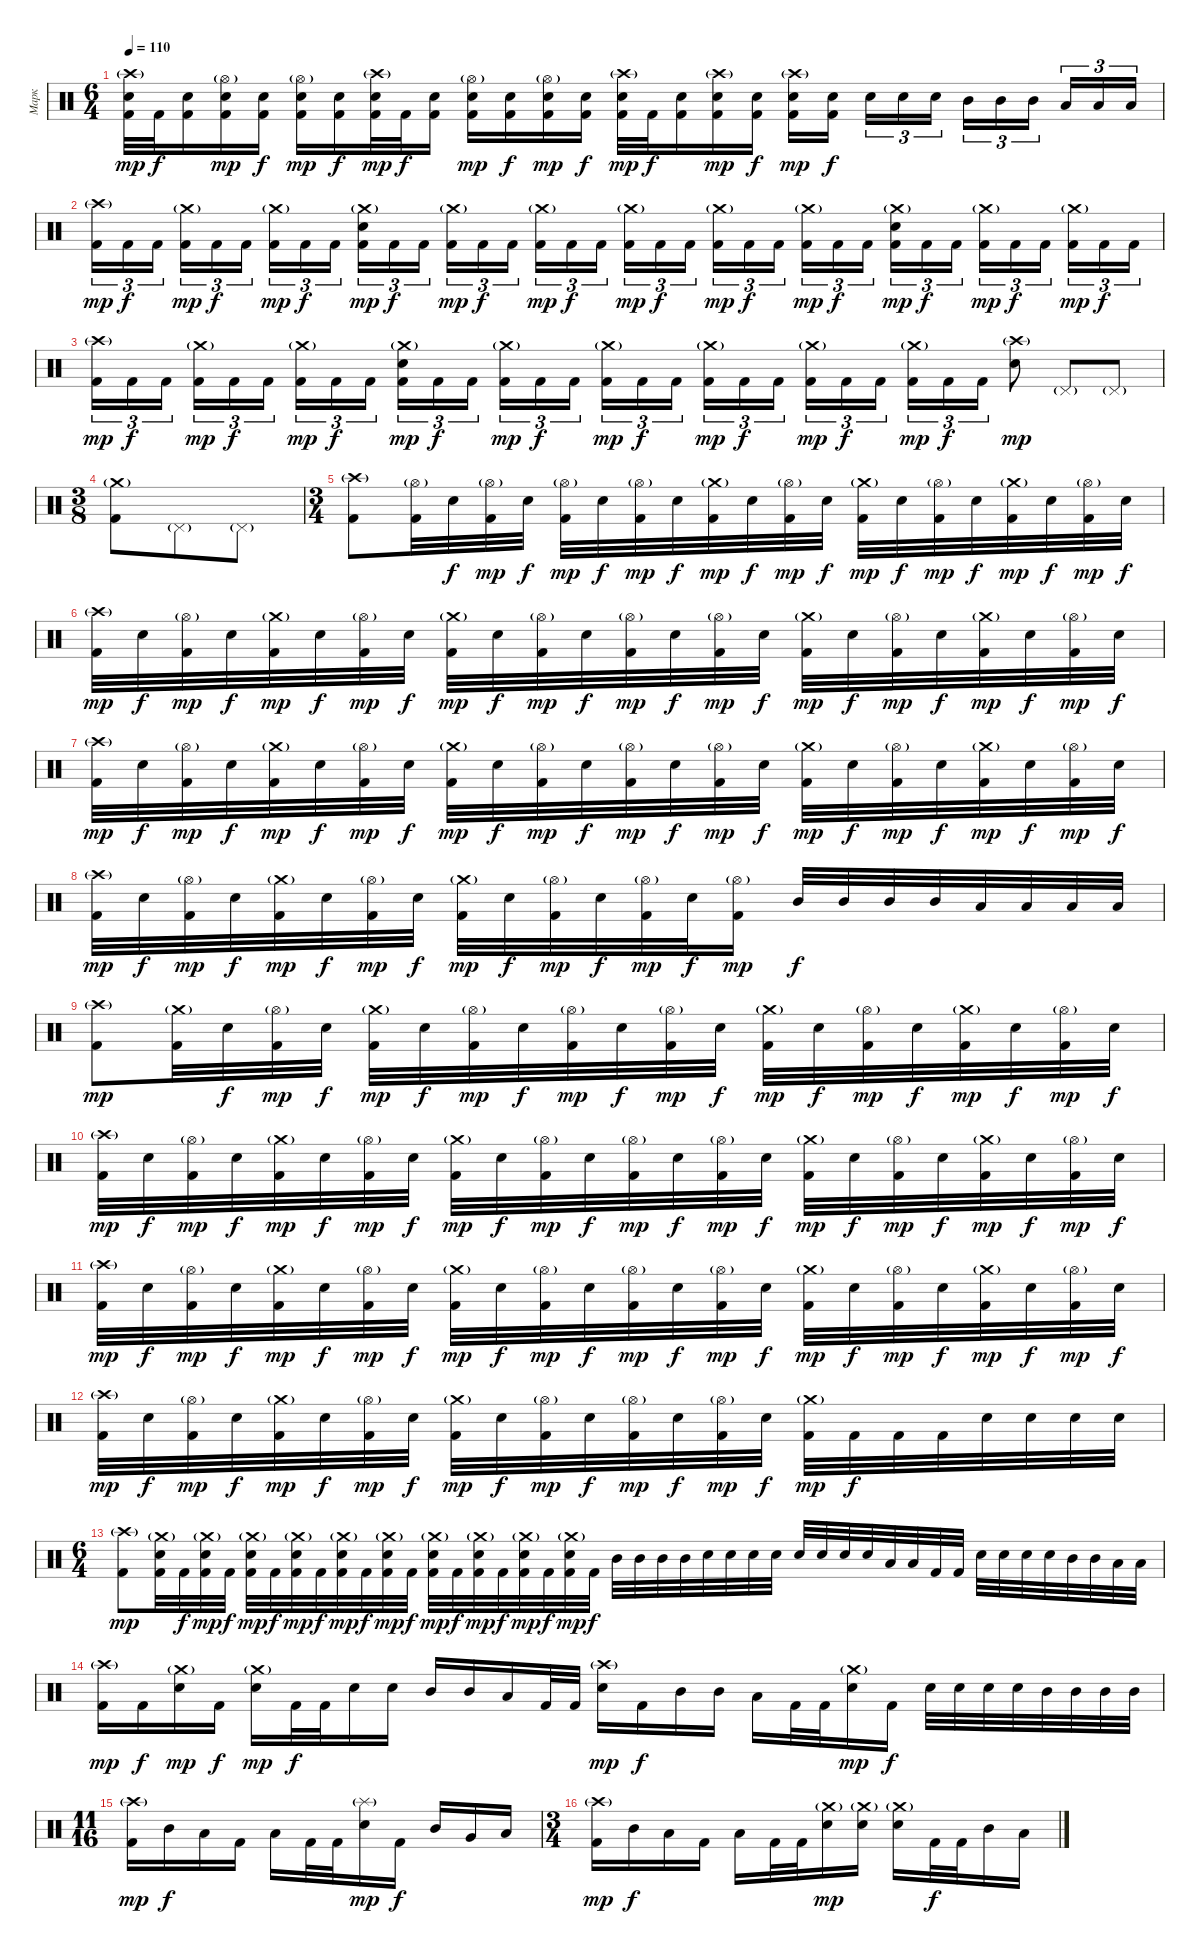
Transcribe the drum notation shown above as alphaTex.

\track ("Марк " "Марк ") {instrument percussion}
\staff {score}
\articulation defaults
\ts (6 4)
\tempo 110
\clef neutral
\ks c
("Crash high (hit)"{g} "Electric Snare (hit)" "Kick (hit) 2").32{dy mp} "Kick (hit) 2".32{dy f} ("Electric Snare (hit)" "Kick (hit) 2").16 ("Hi-Hat (open)"{g} "Electric Snare (hit)" "Kick (hit) 2").16{dy mp} ("Electric Snare (hit)" "Kick (hit) 2").16{dy f} ("Hi-Hat (open)"{g} "Electric Snare (hit)" "Kick (hit) 2").16{dy mp} ("Electric Snare (hit)" "Kick (hit) 2").16{dy f} ("Crash high (hit)"{g} "Electric Snare (hit)" "Kick (hit) 2").32{dy mp} "Kick (hit) 2".32{dy f} ("Electric Snare (hit)" "Kick (hit) 2").16 ("Hi-Hat (open)"{g} "Electric Snare (hit)" "Kick (hit) 2").16{dy mp} ("Electric Snare (hit)" "Kick (hit) 2").16{dy f} ("Hi-Hat (open)"{g} "Electric Snare (hit)" "Kick (hit) 2").16{dy mp} ("Electric Snare (hit)" "Kick (hit) 2").16{dy f} ("Crash high (hit)"{g} "Electric Snare (hit)" "Kick (hit) 2").32{dy mp} "Kick (hit) 2".32{dy f} ("Electric Snare (hit)" "Kick (hit) 2").16 ("Crash high (hit)"{g} "Electric Snare (hit)" "Kick (hit) 2").16{dy mp} ("Electric Snare (hit)" "Kick (hit) 2").16{dy f} ("Crash high (hit)"{g} "Electric Snare (hit)" "Kick (hit) 2").16{dy mp} ("Electric Snare (hit)" "Kick (hit) 2").16{dy f beam splitsecondary} "Electric Snare (hit)".16{tu (3 2)} "Electric Snare (hit)".16{tu (3 2)} "Electric Snare (hit)".16{tu (3 2) beam splitsecondary} "Mid Tom (hit)".16{tu (3 2)} "Mid Tom (hit)".16{tu (3 2)} "Mid Tom (hit)".16{tu (3 2) beam splitsecondary} "Low Tom (hit)".16{tu (3 2)} "Low Tom (hit)".16{tu (3 2)} "Low Tom (hit)".16{tu (3 2)} |
("Crash high (hit)"{g} "Kick (hit) 2").16{tu (3 2) dy mp} "Kick (hit) 2".16{tu (3 2) dy f} "Kick (hit) 2".16{tu (3 2) beam splitsecondary} ("Crash medium (hit)"{g} "Kick (hit) 2").16{tu (3 2) dy mp} "Kick (hit) 2".16{tu (3 2) dy f} "Kick (hit) 2".16{tu (3 2) beam splitsecondary} ("Crash medium (hit)"{g} "Kick (hit) 2").16{tu (3 2) dy mp} "Kick (hit) 2".16{tu (3 2) dy f} "Kick (hit) 2".16{tu (3 2) beam splitsecondary} ("Crash medium (hit)"{g} "Electric Snare (hit)" "Kick (hit) 2").16{tu (3 2) dy mp} "Kick (hit) 2".16{tu (3 2) dy f} "Kick (hit) 2".16{tu (3 2) beam splitsecondary} ("Crash medium (hit)"{g} "Kick (hit) 2").16{tu (3 2) dy mp} "Kick (hit) 2".16{tu (3 2) dy f} "Kick (hit) 2".16{tu (3 2) beam splitsecondary} ("Crash medium (hit)"{g} "Kick (hit) 2").16{tu (3 2) dy mp} "Kick (hit) 2".16{tu (3 2) dy f} "Kick (hit) 2".16{tu (3 2)} ("Crash medium (hit)"{g} "Kick (hit) 2").16{tu (3 2) dy mp} "Kick (hit) 2".16{tu (3 2) dy f} "Kick (hit) 2".16{tu (3 2) beam splitsecondary} ("Crash medium (hit)"{g} "Kick (hit) 2").16{tu (3 2) dy mp} "Kick (hit) 2".16{tu (3 2) dy f} "Kick (hit) 2".16{tu (3 2) beam splitsecondary} ("Crash medium (hit)"{g} "Kick (hit) 2").16{tu (3 2) dy mp} "Kick (hit) 2".16{tu (3 2) dy f} "Kick (hit) 2".16{tu (3 2) beam splitsecondary} ("Crash medium (hit)"{g} "Electric Snare (hit)" "Kick (hit) 2").16{tu (3 2) dy mp} "Kick (hit) 2".16{tu (3 2) dy f} "Kick (hit) 2".16{tu (3 2) beam splitsecondary} ("Crash medium (hit)"{g} "Kick (hit) 2").16{tu (3 2) dy mp} "Kick (hit) 2".16{tu (3 2) dy f} "Kick (hit) 2".16{tu (3 2) beam splitsecondary} ("Crash medium (hit)"{g} "Kick (hit) 2").16{tu (3 2) dy mp} "Kick (hit) 2".16{tu (3 2) dy f} "Kick (hit) 2".16{tu (3 2)} |
("Crash high (hit)"{g} "Kick (hit) 2").16{tu (3 2) dy mp} "Kick (hit) 2".16{tu (3 2) dy f} "Kick (hit) 2".16{tu (3 2) beam splitsecondary} ("Crash medium (hit)"{g} "Kick (hit) 2").16{tu (3 2) dy mp} "Kick (hit) 2".16{tu (3 2) dy f} "Kick (hit) 2".16{tu (3 2) beam splitsecondary} ("Crash medium (hit)"{g} "Kick (hit) 2").16{tu (3 2) dy mp} "Kick (hit) 2".16{tu (3 2) dy f} "Kick (hit) 2".16{tu (3 2) beam splitsecondary} ("Crash medium (hit)"{g} "Electric Snare (hit)" "Kick (hit) 2").16{tu (3 2) dy mp} "Kick (hit) 2".16{tu (3 2) dy f} "Kick (hit) 2".16{tu (3 2) beam splitsecondary} ("Crash medium (hit)"{g} "Kick (hit) 2").16{tu (3 2) dy mp} "Kick (hit) 2".16{tu (3 2) dy f} "Kick (hit) 2".16{tu (3 2) beam splitsecondary} ("Crash medium (hit)"{g} "Kick (hit) 2").16{tu (3 2) dy mp} "Kick (hit) 2".16{tu (3 2) dy f} "Kick (hit) 2".16{tu (3 2)} ("Crash medium (hit)"{g} "Kick (hit) 2").16{tu (3 2) dy mp} "Kick (hit) 2".16{tu (3 2) dy f} "Kick (hit) 2".16{tu (3 2) beam splitsecondary} ("Crash medium (hit)"{g} "Kick (hit) 2").16{tu (3 2) dy mp} "Kick (hit) 2".16{tu (3 2) dy f} "Kick (hit) 2".16{tu (3 2) beam splitsecondary} ("Crash medium (hit)"{g} "Kick (hit) 2").16{tu (3 2) dy mp} "Kick (hit) 2".16{tu (3 2) dy f} "Kick (hit) 2".16{tu (3 2)} ("Crash high (hit)"{g} "Electric Snare (hit)").8{dy mp} "Pedal Hi-Hat (hit)"{g}.8 "Pedal Hi-Hat (hit)"{g}.8 |
\ts (3 8)
("Crash medium (hit)"{g} "Kick (hit) 2").8 "Pedal Hi-Hat (hit)"{g}.8 "Pedal Hi-Hat (hit)"{g}.8 |
\ts (3 4)
("Crash high (hit)"{g} "Kick (hit) 2").8 ("Hi-Hat (open)"{g} "Kick (hit) 2").32 "Electric Snare (hit)".32{dy f} ("Hi-Hat (open)"{g} "Kick (hit) 2").32{dy mp} "Electric Snare (hit)".32{dy f} ("Hi-Hat (open)"{g} "Kick (hit) 2").32{dy mp} "Electric Snare (hit)".32{dy f} ("Hi-Hat (open)"{g} "Kick (hit) 2").32{dy mp} "Electric Snare (hit)".32{dy f} ("Crash medium (hit)"{g} "Kick (hit) 2").32{dy mp} "Electric Snare (hit)".32{dy f} ("Hi-Hat (open)"{g} "Kick (hit) 2").32{dy mp} "Electric Snare (hit)".32{dy f} ("Crash medium (hit)"{g} "Kick (hit) 2").32{dy mp} "Electric Snare (hit)".32{dy f} ("Hi-Hat (open)"{g} "Kick (hit) 2").32{dy mp} "Electric Snare (hit)".32{dy f} ("Crash medium (hit)"{g} "Kick (hit) 2").32{dy mp} "Electric Snare (hit)".32{dy f} ("Hi-Hat (open)"{g} "Kick (hit) 2").32{dy mp} "Electric Snare (hit)".32{dy f} |
("Crash high (hit)"{g} "Kick (hit) 2").32{dy mp} "Electric Snare (hit)".32{dy f} ("Hi-Hat (open)"{g} "Kick (hit) 2").32{dy mp} "Electric Snare (hit)".32{dy f} ("Crash medium (hit)"{g} "Kick (hit) 2").32{dy mp} "Electric Snare (hit)".32{dy f} ("Hi-Hat (open)"{g} "Kick (hit) 2").32{dy mp} "Electric Snare (hit)".32{dy f} ("Crash medium (hit)"{g} "Kick (hit) 2").32{dy mp} "Electric Snare (hit)".32{dy f} ("Hi-Hat (open)"{g} "Kick (hit) 2").32{dy mp} "Electric Snare (hit)".32{dy f} ("Hi-Hat (open)"{g} "Kick (hit) 2").32{dy mp} "Electric Snare (hit)".32{dy f} ("Hi-Hat (open)"{g} "Kick (hit) 2").32{dy mp} "Electric Snare (hit)".32{dy f} ("Crash medium (hit)"{g} "Kick (hit) 2").32{dy mp} "Electric Snare (hit)".32{dy f} ("Hi-Hat (open)"{g} "Kick (hit) 2").32{dy mp} "Electric Snare (hit)".32{dy f} ("Crash medium (hit)"{g} "Kick (hit) 2").32{dy mp} "Electric Snare (hit)".32{dy f} ("Hi-Hat (open)"{g} "Kick (hit) 2").32{dy mp} "Electric Snare (hit)".32{dy f} |
("Crash high (hit)"{g} "Kick (hit) 2").32{dy mp} "Electric Snare (hit)".32{dy f} ("Hi-Hat (open)"{g} "Kick (hit) 2").32{dy mp} "Electric Snare (hit)".32{dy f} ("Crash medium (hit)"{g} "Kick (hit) 2").32{dy mp} "Electric Snare (hit)".32{dy f} ("Hi-Hat (open)"{g} "Kick (hit) 2").32{dy mp} "Electric Snare (hit)".32{dy f} ("Crash medium (hit)"{g} "Kick (hit) 2").32{dy mp} "Electric Snare (hit)".32{dy f} ("Hi-Hat (open)"{g} "Kick (hit) 2").32{dy mp} "Electric Snare (hit)".32{dy f} ("Hi-Hat (open)"{g} "Kick (hit) 2").32{dy mp} "Electric Snare (hit)".32{dy f} ("Hi-Hat (open)"{g} "Kick (hit) 2").32{dy mp} "Electric Snare (hit)".32{dy f} ("Crash medium (hit)"{g} "Kick (hit) 2").32{dy mp} "Electric Snare (hit)".32{dy f} ("Hi-Hat (open)"{g} "Kick (hit) 2").32{dy mp} "Electric Snare (hit)".32{dy f} ("Crash medium (hit)"{g} "Kick (hit) 2").32{dy mp} "Electric Snare (hit)".32{dy f} ("Hi-Hat (open)"{g} "Kick (hit) 2").32{dy mp} "Electric Snare (hit)".32{dy f} |
("Crash high (hit)"{g} "Kick (hit) 2").32{dy mp} "Electric Snare (hit)".32{dy f} ("Hi-Hat (open)"{g} "Kick (hit) 2").32{dy mp} "Electric Snare (hit)".32{dy f} ("Crash medium (hit)"{g} "Kick (hit) 2").32{dy mp} "Electric Snare (hit)".32{dy f} ("Hi-Hat (open)"{g} "Kick (hit) 2").32{dy mp} "Electric Snare (hit)".32{dy f} ("Crash medium (hit)"{g} "Kick (hit) 2").32{dy mp} "Electric Snare (hit)".32{dy f} ("Hi-Hat (open)"{g} "Kick (hit) 2").32{dy mp} "Electric Snare (hit)".32{dy f} ("Hi-Hat (open)"{g} "Kick (hit) 2").32{dy mp} "Electric Snare (hit)".32{dy f} ("Hi-Hat (open)"{g} "Kick (hit) 2").16{dy mp} "Mid Tom (hit)".32{dy f} "Mid Tom (hit)".32 "Mid Tom (hit)".32 "Mid Tom (hit)".32 "Low Tom (hit)".32 "Low Tom (hit)".32 "Low Tom (hit)".32 "Low Tom (hit)".32 |
("Crash high (hit)"{g} "Kick (hit) 2").8{dy mp} ("Crash medium (hit)"{g} "Kick (hit) 2").32 "Electric Snare (hit)".32{dy f} ("Hi-Hat (open)"{g} "Kick (hit) 2").32{dy mp} "Electric Snare (hit)".32{dy f} ("Crash medium (hit)"{g} "Kick (hit) 2").32{dy mp} "Electric Snare (hit)".32{dy f} ("Hi-Hat (open)"{g} "Kick (hit) 2").32{dy mp} "Electric Snare (hit)".32{dy f} ("Hi-Hat (open)"{g} "Kick (hit) 2").32{dy mp} "Electric Snare (hit)".32{dy f} ("Hi-Hat (open)"{g} "Kick (hit) 2").32{dy mp} "Electric Snare (hit)".32{dy f} ("Crash medium (hit)"{g} "Kick (hit) 2").32{dy mp} "Electric Snare (hit)".32{dy f} ("Hi-Hat (open)"{g} "Kick (hit) 2").32{dy mp} "Electric Snare (hit)".32{dy f} ("Crash medium (hit)"{g} "Kick (hit) 2").32{dy mp} "Electric Snare (hit)".32{dy f} ("Hi-Hat (open)"{g} "Kick (hit) 2").32{dy mp} "Electric Snare (hit)".32{dy f} |
("Crash high (hit)"{g} "Kick (hit) 2").32{dy mp} "Electric Snare (hit)".32{dy f} ("Hi-Hat (open)"{g} "Kick (hit) 2").32{dy mp} "Electric Snare (hit)".32{dy f} ("Crash medium (hit)"{g} "Kick (hit) 2").32{dy mp} "Electric Snare (hit)".32{dy f} ("Hi-Hat (open)"{g} "Kick (hit) 2").32{dy mp} "Electric Snare (hit)".32{dy f} ("Crash medium (hit)"{g} "Kick (hit) 2").32{dy mp} "Electric Snare (hit)".32{dy f} ("Hi-Hat (open)"{g} "Kick (hit) 2").32{dy mp} "Electric Snare (hit)".32{dy f} ("Hi-Hat (open)"{g} "Kick (hit) 2").32{dy mp} "Electric Snare (hit)".32{dy f} ("Hi-Hat (open)"{g} "Kick (hit) 2").32{dy mp} "Electric Snare (hit)".32{dy f} ("Crash medium (hit)"{g} "Kick (hit) 2").32{dy mp} "Electric Snare (hit)".32{dy f} ("Hi-Hat (open)"{g} "Kick (hit) 2").32{dy mp} "Electric Snare (hit)".32{dy f} ("Crash medium (hit)"{g} "Kick (hit) 2").32{dy mp} "Electric Snare (hit)".32{dy f} ("Hi-Hat (open)"{g} "Kick (hit) 2").32{dy mp} "Electric Snare (hit)".32{dy f} |
("Crash high (hit)"{g} "Kick (hit) 2").32{dy mp} "Electric Snare (hit)".32{dy f} ("Hi-Hat (open)"{g} "Kick (hit) 2").32{dy mp} "Electric Snare (hit)".32{dy f} ("Crash medium (hit)"{g} "Kick (hit) 2").32{dy mp} "Electric Snare (hit)".32{dy f} ("Hi-Hat (open)"{g} "Kick (hit) 2").32{dy mp} "Electric Snare (hit)".32{dy f} ("Crash medium (hit)"{g} "Kick (hit) 2").32{dy mp} "Electric Snare (hit)".32{dy f} ("Hi-Hat (open)"{g} "Kick (hit) 2").32{dy mp} "Electric Snare (hit)".32{dy f} ("Hi-Hat (open)"{g} "Kick (hit) 2").32{dy mp} "Electric Snare (hit)".32{dy f} ("Hi-Hat (open)"{g} "Kick (hit) 2").32{dy mp} "Electric Snare (hit)".32{dy f} ("Crash medium (hit)"{g} "Kick (hit) 2").32{dy mp} "Electric Snare (hit)".32{dy f} ("Hi-Hat (open)"{g} "Kick (hit) 2").32{dy mp} "Electric Snare (hit)".32{dy f} ("Crash medium (hit)"{g} "Kick (hit) 2").32{dy mp} "Electric Snare (hit)".32{dy f} ("Hi-Hat (open)"{g} "Kick (hit) 2").32{dy mp} "Electric Snare (hit)".32{dy f} |
("Crash high (hit)"{g} "Kick (hit) 2").32{dy mp} "Electric Snare (hit)".32{dy f} ("Hi-Hat (open)"{g} "Kick (hit) 2").32{dy mp} "Electric Snare (hit)".32{dy f} ("Crash medium (hit)"{g} "Kick (hit) 2").32{dy mp} "Electric Snare (hit)".32{dy f} ("Hi-Hat (open)"{g} "Kick (hit) 2").32{dy mp} "Electric Snare (hit)".32{dy f} ("Crash medium (hit)"{g} "Kick (hit) 2").32{dy mp} "Electric Snare (hit)".32{dy f} ("Hi-Hat (open)"{g} "Kick (hit) 2").32{dy mp} "Electric Snare (hit)".32{dy f} ("Hi-Hat (open)"{g} "Kick (hit) 2").32{dy mp} "Electric Snare (hit)".32{dy f} ("Hi-Hat (open)"{g} "Kick (hit) 2").32{dy mp} "Electric Snare (hit)".32{dy f} ("Crash medium (hit)"{g} "Kick (hit) 2").32{dy mp} "Kick (hit) 2".32{dy f} "Kick (hit) 2".32 "Kick (hit) 2".32 "Electric Snare (hit)".32 "Electric Snare (hit)".32 "Electric Snare (hit)".32 "Electric Snare (hit)".32 |
\ts (6 4)
("Crash high (hit)"{g} "Kick (hit) 2").8{dy mp} ("Crash medium (hit)"{g} "Electric Snare (hit)" "Kick (hit) 2").32 "Kick (hit) 2".32{dy f} ("Crash medium (hit)"{g} "Electric Snare (hit)" "Kick (hit) 2").32{dy mp} "Kick (hit) 2".32{dy f} ("Crash medium (hit)"{g} "Electric Snare (hit)" "Kick (hit) 2").32{dy mp} "Kick (hit) 2".32{dy f} ("Crash medium (hit)"{g} "Electric Snare (hit)" "Kick (hit) 2").32{dy mp} "Kick (hit) 2".32{dy f} ("Crash medium (hit)"{g} "Electric Snare (hit)" "Kick (hit) 2").32{dy mp} "Kick (hit) 2".32{dy f} ("Crash medium (hit)"{g} "Electric Snare (hit)" "Kick (hit) 2").32{dy mp} "Kick (hit) 2".32{dy f} ("Crash medium (hit)"{g} "Electric Snare (hit)" "Kick (hit) 2").32{dy mp} "Kick (hit) 2".32{dy f} ("Crash medium (hit)"{g} "Electric Snare (hit)" "Kick (hit) 2").32{dy mp} "Kick (hit) 2".32{dy f} ("Crash medium (hit)"{g} "Electric Snare (hit)" "Kick (hit) 2").32{dy mp} "Kick (hit) 2".32{dy f} ("Crash medium (hit)"{g} "Electric Snare (hit)" "Kick (hit) 2").32{dy mp} "Kick (hit) 2".32{dy f} "Mid Tom (hit)".32 "Mid Tom (hit)".32 "Mid Tom (hit)".32 "Mid Tom (hit)".32 "Electric Snare (hit)".32 "Electric Snare (hit)".32 "Electric Snare (hit)".32 "Electric Snare (hit)".32 "Electric Snare (hit)".32 "Electric Snare (hit)".32 "Electric Snare (hit)".32 "Electric Snare (hit)".32 "Low Tom (hit)".32 "Low Tom (hit)".32 "Kick (hit) 2".32 "Kick (hit) 2".32 "Electric Snare (hit)".32 "Electric Snare (hit)".32 "Electric Snare (hit)".32 "Electric Snare (hit)".32 "Mid Tom (hit)".32 "Mid Tom (hit)".32 "Low Tom (hit)".32 "Low Tom (hit)".32 |
("Crash high (hit)"{g} "Kick (hit) 2").16{dy mp} "Kick (hit) 2".16{dy f} ("Crash medium (hit)"{g} "Electric Snare (hit)").16{dy mp} "Kick (hit) 2".16{dy f} ("Crash medium (hit)"{g} "Electric Snare (hit)").16{dy mp} "Kick (hit) 2".32{dy f} "Kick (hit) 2".32 "Electric Snare (hit)".16 "Electric Snare (hit)".16 "Mid Tom (hit)".16 "Mid Tom (hit)".16 "Low Tom (hit)".16 "Kick (hit) 2".32 "Kick (hit) 2".32 ("Crash high (hit)"{g} "Electric Snare (hit)").16{dy mp} "Kick (hit) 2".16{dy f} "Mid Tom (hit)".16 "Mid Tom (hit)".16 "Low Tom (hit)".16 "Kick (hit) 2".32 "Kick (hit) 2".32 ("Crash medium (hit)"{g} "Electric Snare (hit)").16{dy mp} "Kick (hit) 2".16{dy f} "Electric Snare (hit)".32 "Electric Snare (hit)".32 "Electric Snare (hit)".32 "Electric Snare (hit)".32 "Mid Tom (hit)".32 "Mid Tom (hit)".32 "Mid Tom (hit)".32 "Mid Tom (hit)".32 |
\ts (11 16)
("Crash high (hit)"{g} "Kick (hit) 2").16{dy mp} "Mid Tom (hit)".16{dy f} "Low Tom (hit)".16 "Kick (hit) 2".16 "Low Tom (hit)".16 "Kick (hit) 2".32 "Kick (hit) 2".32 ("Splash (hit)"{g} "Electric Snare (hit)").16{dy mp} "Kick (hit) 2".16{dy f} "Mid Tom (hit)".16 "Very Low Tom (hit)".16 "Low Tom (hit)".16 |
\ts (3 4)
("Crash high (hit)"{g} "Kick (hit) 2").16{dy mp} "Mid Tom (hit)".16{dy f} "Low Tom (hit)".16 "Kick (hit) 2".16 "Low Tom (hit)".16 "Kick (hit) 2".32 "Kick (hit) 2".32 ("Crash medium (hit)"{g} "Electric Snare (hit)").16{dy mp} ("Crash medium (hit)"{g} "Electric Snare (hit)").16 ("Crash medium (hit)"{g} "Electric Snare (hit)").16 "Kick (hit) 2".32{dy f} "Kick (hit) 2".32 "Mid Tom (hit)".16 "Low Tom (hit)".16
